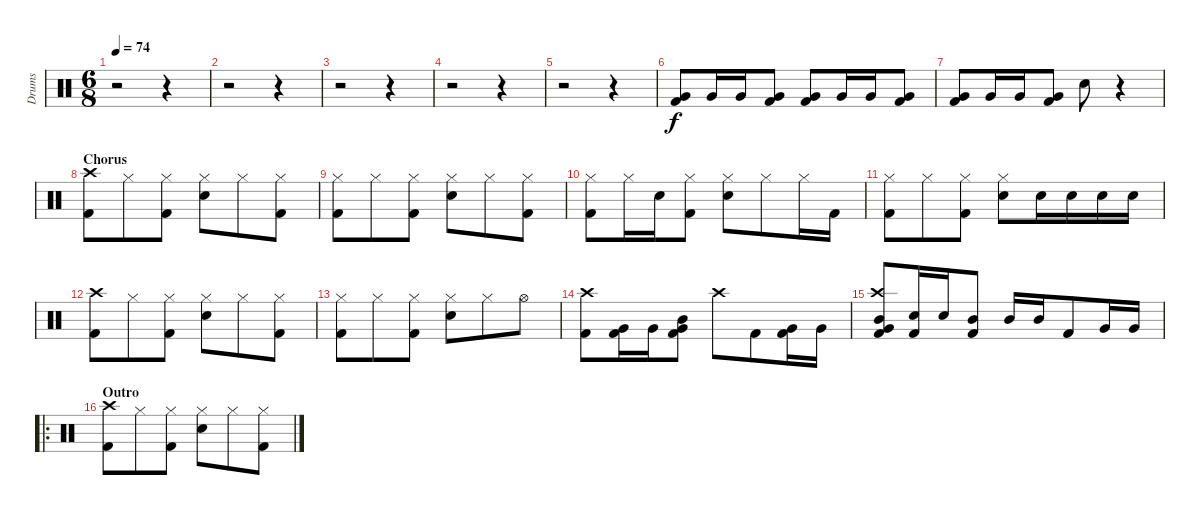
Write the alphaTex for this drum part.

\track ("Drums" "Drums") {instrument percussion}
\staff {score}
\articulation defaults
\ts (6 8)
\tempo 74
\clef neutral
\ks c
r.2{dy f} r.4 |
r.2 r.4 |
r.2 r.4 |
r.2 r.4 |
r.2 r.4 |
("Very Low Tom (hit)" "Kick (hit) 2").8 "Very Low Tom (hit)".16 "Very Low Tom (hit)".16 ("Very Low Tom (hit)" "Kick (hit) 2").8 ("Very Low Tom (hit)" "Kick (hit) 2").8 "Very Low Tom (hit)".16 "Very Low Tom (hit)".16 ("Very Low Tom (hit)" "Kick (hit) 2").8 |
("Very Low Tom (hit)" "Kick (hit) 2").8 "Very Low Tom (hit)".16 "Very Low Tom (hit)".16 ("Very Low Tom (hit)" "Kick (hit) 2").8 "Electric Snare (hit)".8 r.4 |
\section ("" "Chorus")
("Crash high (hit)" "Kick (hit) 2").8 "Hi-Hat (closed)".8 ("Hi-Hat (closed)" "Kick (hit) 2").8 ("Hi-Hat (closed)" "Electric Snare (hit)").8 "Hi-Hat (closed)".8 ("Hi-Hat (closed)" "Kick (hit) 2").8 |
("Hi-Hat (closed)" "Kick (hit) 2").8 "Hi-Hat (closed)".8 ("Hi-Hat (closed)" "Kick (hit) 2").8 ("Hi-Hat (closed)" "Electric Snare (hit)").8 "Hi-Hat (closed)".8 ("Hi-Hat (closed)" "Kick (hit) 2").8 |
("Hi-Hat (closed)" "Kick (hit) 2").8 "Hi-Hat (closed)".16 "Electric Snare (hit)".16 ("Hi-Hat (closed)" "Kick (hit) 2").8 ("Hi-Hat (closed)" "Electric Snare (hit)").8 "Hi-Hat (closed)".8 "Hi-Hat (closed)".16 "Kick (hit) 2".16 |
("Hi-Hat (closed)" "Kick (hit) 2").8 "Hi-Hat (closed)".8 ("Hi-Hat (closed)" "Kick (hit) 2").8 ("Hi-Hat (closed)" "Electric Snare (hit)").8 "Electric Snare (hit)".16 "Electric Snare (hit)".16 "Electric Snare (hit)".16 "Electric Snare (hit)".16 |
("Crash high (hit)" "Kick (hit) 2").8 "Hi-Hat (closed)".8 ("Hi-Hat (closed)" "Kick (hit) 2").8 ("Hi-Hat (closed)" "Electric Snare (hit)").8 "Hi-Hat (closed)".8 ("Hi-Hat (closed)" "Kick (hit) 2").8 |
("Hi-Hat (closed)" "Kick (hit) 2").8 "Hi-Hat (closed)".8 ("Hi-Hat (closed)" "Kick (hit) 2").8 ("Hi-Hat (closed)" "Electric Snare (hit)").8 "Hi-Hat (closed)".8 "Hi-Hat (open)".8 |
("Crash high (hit)" "Kick (hit) 2").8 ("Very Low Tom (hit)" "Kick (hit) 2").16 "Very Low Tom (hit)".16 ("Mid Tom (hit)" "Very Low Tom (hit)" "Kick (hit) 2").8 "Crash high (hit)".8 "Kick (hit) 2".8 ("Very Low Tom (hit)" "Kick (hit) 2").16 "Very Low Tom (hit)".16 |
("Crash high (hit)" "Mid Tom (hit)" "Very Low Tom (hit)" "Kick (hit) 2").8 ("Electric Snare (hit)" "Kick (hit) 2").16 "Electric Snare (hit)".16 ("Mid Tom (hit)" "Kick (hit) 2").8 "Mid Tom (hit)".16 "Mid Tom (hit)".16 "Kick (hit) 2".8 "Very Low Tom (hit)".16 "Very Low Tom (hit)".16 |
\ro
\section ("" "Outro")
("Crash high (hit)" "Kick (hit) 2").8 "Hi-Hat (closed)".8 ("Hi-Hat (closed)" "Kick (hit) 2").8 ("Hi-Hat (closed)" "Electric Snare (hit)").8 "Hi-Hat (closed)".8 ("Hi-Hat (closed)" "Kick (hit) 2").8
